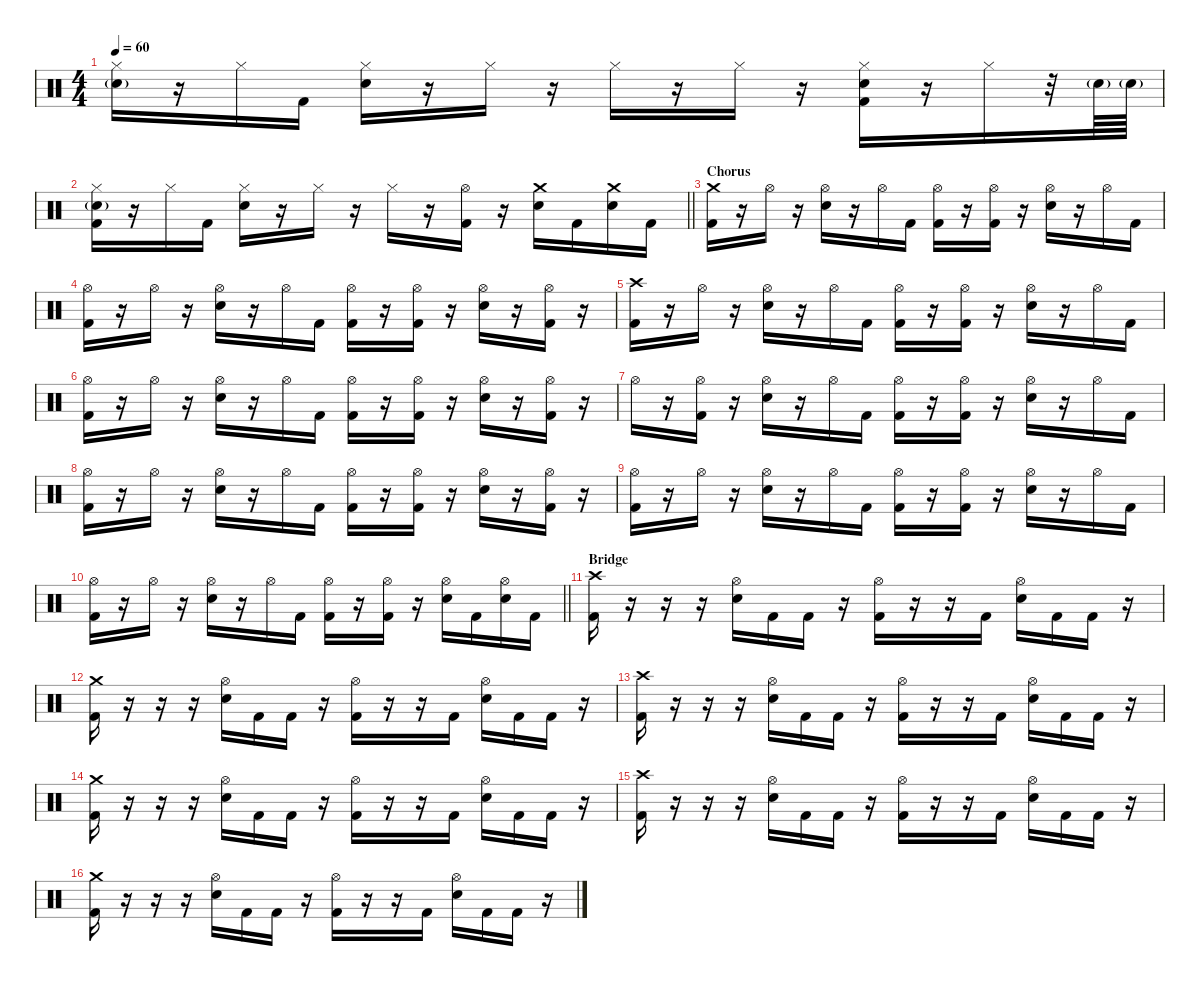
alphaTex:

\defaultSystemsLayout 4
\hideDynamics
\bracketExtendMode nobrackets
\singleTrackTrackNamePolicy hidden
\multiTrackTrackNamePolicy hidden
\firstSystemTrackNameMode fullname
\firstSystemTrackNameOrientation horizontal
\otherSystemsTrackNameOrientation horizontal
\track ("Gene Hoglan" "drm.") {instrument percussion}
\staff {score}
\articulation defaults
\ts (4 4)
\tempo 60
\clef neutral
\ks c
("Hi-Hat (closed)" "Snare (hit) 2"{g}).16{dy f beam Down} r.16{beam Down} "Hi-Hat (closed)".16{beam Down} "Kick (hit) 2".16{beam Down} ("Hi-Hat (closed)" "Snare (hit) 2").16{beam Down} r.16{beam Down} "Hi-Hat (closed)".16{beam Down} r.16{beam Down} "Hi-Hat (closed)".16{beam Down} r.16{beam Down} "Hi-Hat (closed)".16{beam Down} r.16{beam Down} ("Hi-Hat (closed)" "Snare (hit) 2" "Kick (hit) 2").16{beam Down} r.16{beam Down} "Hi-Hat (closed)".16{beam Down} r.32{beam Down} "Snare (hit) 2"{g}.64{beam Down} "Snare (hit) 2"{g}.64{beam Down} |
\barLineRight lightlight
("Hi-Hat (closed)" "Snare (hit) 2"{g} "Kick (hit) 2").16{beam Down} r.16{beam Down} "Hi-Hat (closed)".16{beam Down} "Kick (hit) 2".16{beam Down} ("Hi-Hat (closed)" "Snare (hit) 2").16{beam Down} r.16{beam Down} "Hi-Hat (closed)".16{beam Down} r.16{beam Down} "Hi-Hat (closed)".16{beam Down} r.16{beam Down} ("Hi-Hat (open)" "Kick (hit) 2").16{beam Down} r.16{beam Down} ("Crash medium (hit)" "Snare (hit) 2").16{beam Down} "Kick (hit) 2".16{beam Down} ("Crash medium (hit)" "Snare (hit) 2").16{beam Down} "Kick (hit) 2".16{beam Down} |
\section ("" "Chorus")
("Crash medium (hit)" "Kick (hit) 2").16{beam Down} r.16{beam Down} "Hi-Hat (open)".16{beam Down} r.16{beam Down} ("Hi-Hat (open)" "Snare (hit) 2").16{beam Down} r.16{beam Down} "Hi-Hat (open)".16{beam Down} "Kick (hit) 2".16{beam Down} ("Hi-Hat (open)" "Kick (hit) 2").16{beam Down} r.16{beam Down} ("Hi-Hat (open)" "Kick (hit) 2").16{beam Down} r.16{beam Down} ("Hi-Hat (open)" "Snare (hit) 2").16{beam Down} r.16{beam Down} "Hi-Hat (open)".16{beam Down} "Kick (hit) 2".16{beam Down} |
("Hi-Hat (open)" "Kick (hit) 2").16{beam Down} r.16{beam Down} "Hi-Hat (open)".16{beam Down} r.16{beam Down} ("Hi-Hat (open)" "Snare (hit) 2").16{beam Down} r.16{beam Down} "Hi-Hat (open)".16{beam Down} "Kick (hit) 2".16{beam Down} ("Hi-Hat (open)" "Kick (hit) 2").16{beam Down} r.16{beam Down} ("Hi-Hat (open)" "Kick (hit) 2").16{beam Down} r.16{beam Down} ("Hi-Hat (open)" "Snare (hit) 2").16{beam Down} r.16{beam Down} ("Hi-Hat (open)" "Kick (hit) 2").16{beam Down} r.16{beam Down} |
("Crash high (hit)" "Kick (hit) 2").16{beam Down} r.16{beam Down} "Hi-Hat (open)".16{beam Down} r.16{beam Down} ("Hi-Hat (open)" "Snare (hit) 2").16{beam Down} r.16{beam Down} "Hi-Hat (open)".16{beam Down} "Kick (hit) 2".16{beam Down} ("Hi-Hat (open)" "Kick (hit) 2").16{beam Down} r.16{beam Down} ("Hi-Hat (open)" "Kick (hit) 2").16{beam Down} r.16{beam Down} ("Hi-Hat (open)" "Snare (hit) 2").16{beam Down} r.16{beam Down} "Hi-Hat (open)".16{beam Down} "Kick (hit) 2".16{beam Down} |
("Hi-Hat (open)" "Kick (hit) 2").16{beam Down} r.16{beam Down} "Hi-Hat (open)".16{beam Down} r.16{beam Down} ("Hi-Hat (open)" "Snare (hit) 2").16{beam Down} r.16{beam Down} "Hi-Hat (open)".16{beam Down} "Kick (hit) 2".16{beam Down} ("Hi-Hat (open)" "Kick (hit) 2").16{beam Down} r.16{beam Down} ("Hi-Hat (open)" "Kick (hit) 2").16{beam Down} r.16{beam Down} ("Hi-Hat (open)" "Snare (hit) 2").16{beam Down} r.16{beam Down} ("Hi-Hat (open)" "Kick (hit) 2").16{beam Down} r.16{beam Down} |
"Hi-Hat (open)".16{beam Down} r.16{beam Down} ("Hi-Hat (open)" "Kick (hit) 2").16{beam Down} r.16{beam Down} ("Hi-Hat (open)" "Snare (hit) 2").16{beam Down} r.16{beam Down} "Hi-Hat (open)".16{beam Down} "Kick (hit) 2".16{beam Down} ("Hi-Hat (open)" "Kick (hit) 2").16{beam Down} r.16{beam Down} ("Hi-Hat (open)" "Kick (hit) 2").16{beam Down} r.16{beam Down} ("Hi-Hat (open)" "Snare (hit) 2").16{beam Down} r.16{beam Down} "Hi-Hat (open)".16{beam Down} "Kick (hit) 2".16{beam Down} |
("Hi-Hat (open)" "Kick (hit) 2").16{beam Down} r.16{beam Down} "Hi-Hat (open)".16{beam Down} r.16{beam Down} ("Hi-Hat (open)" "Snare (hit) 2").16{beam Down} r.16{beam Down} "Hi-Hat (open)".16{beam Down} "Kick (hit) 2".16{beam Down} ("Hi-Hat (open)" "Kick (hit) 2").16{beam Down} r.16{beam Down} ("Hi-Hat (open)" "Kick (hit) 2").16{beam Down} r.16{beam Down} ("Hi-Hat (open)" "Snare (hit) 2").16{beam Down} r.16{beam Down} ("Hi-Hat (open)" "Kick (hit) 2").16{beam Down} r.16{beam Down} |
("Hi-Hat (open)" "Kick (hit) 2").16{beam Down} r.16{beam Down} "Hi-Hat (open)".16{beam Down} r.16{beam Down} ("Hi-Hat (open)" "Snare (hit) 2").16{beam Down} r.16{beam Down} "Hi-Hat (open)".16{beam Down} "Kick (hit) 2".16{beam Down} ("Hi-Hat (open)" "Kick (hit) 2").16{beam Down} r.16{beam Down} ("Hi-Hat (open)" "Kick (hit) 2").16{beam Down} r.16{beam Down} ("Hi-Hat (open)" "Snare (hit) 2").16{beam Down} r.16{beam Down} "Hi-Hat (open)".16{beam Down} "Kick (hit) 2".16{beam Down} |
\barLineRight lightlight
("Hi-Hat (open)" "Kick (hit) 2").16{beam Down} r.16{beam Down} "Hi-Hat (open)".16{beam Down} r.16{beam Down} ("Hi-Hat (open)" "Snare (hit) 2").16{beam Down} r.16{beam Down} "Hi-Hat (open)".16{beam Down} "Kick (hit) 2".16{beam Down} ("Hi-Hat (open)" "Kick (hit) 2").16{beam Down} r.16{beam Down} ("Hi-Hat (open)" "Kick (hit) 2").16{beam Down} r.16{beam Down} ("Hi-Hat (open)" "Snare (hit) 2").16{beam Down} "Kick (hit) 2".16{beam Down} ("Hi-Hat (open)" "Snare (hit) 2").16{beam Down} "Kick (hit) 2".16{beam Down} |
\section ("" "Bridge")
("Crash high (hit)" "Kick (hit) 2").16{beam Down} r.16{beam Down} r.16{beam Down} r.16{beam Down} ("Hi-Hat (open)" "Snare (hit) 2").16{beam Down} "Kick (hit) 2".16{beam Down} "Kick (hit) 2".16{beam Down} r.16{beam Down} ("Hi-Hat (open)" "Kick (hit) 2").16{beam Down} r.16{beam Down} r.16{beam Down} "Kick (hit) 2".16{beam Down} ("Hi-Hat (open)" "Snare (hit) 2").16{beam Down} "Kick (hit) 2".16{beam Down} "Kick (hit) 2".16{beam Down} r.16{beam Down} |
("Crash medium (hit)" "Kick (hit) 2").16{beam Down} r.16{beam Down} r.16{beam Down} r.16{beam Down} ("Hi-Hat (open)" "Snare (hit) 2").16{beam Down} "Kick (hit) 2".16{beam Down} "Kick (hit) 2".16{beam Down} r.16{beam Down} ("Hi-Hat (open)" "Kick (hit) 2").16{beam Down} r.16{beam Down} r.16{beam Down} "Kick (hit) 2".16{beam Down} ("Hi-Hat (open)" "Snare (hit) 2").16{beam Down} "Kick (hit) 2".16{beam Down} "Kick (hit) 2".16{beam Down} r.16{beam Down} |
("Crash high (hit)" "Kick (hit) 2").16{beam Down} r.16{beam Down} r.16{beam Down} r.16{beam Down} ("Hi-Hat (open)" "Snare (hit) 2").16{beam Down} "Kick (hit) 2".16{beam Down} "Kick (hit) 2".16{beam Down} r.16{beam Down} ("Hi-Hat (open)" "Kick (hit) 2").16{beam Down} r.16{beam Down} r.16{beam Down} "Kick (hit) 2".16{beam Down} ("Hi-Hat (open)" "Snare (hit) 2").16{beam Down} "Kick (hit) 2".16{beam Down} "Kick (hit) 2".16{beam Down} r.16{beam Down} |
("Crash medium (hit)" "Kick (hit) 2").16{beam Down} r.16{beam Down} r.16{beam Down} r.16{beam Down} ("Hi-Hat (open)" "Snare (hit) 2").16{beam Down} "Kick (hit) 2".16{beam Down} "Kick (hit) 2".16{beam Down} r.16{beam Down} ("Hi-Hat (open)" "Kick (hit) 2").16{beam Down} r.16{beam Down} r.16{beam Down} "Kick (hit) 2".16{beam Down} ("Hi-Hat (open)" "Snare (hit) 2").16{beam Down} "Kick (hit) 2".16{beam Down} "Kick (hit) 2".16{beam Down} r.16{beam Down} |
("Crash high (hit)" "Kick (hit) 2").16{beam Down} r.16{beam Down} r.16{beam Down} r.16{beam Down} ("Hi-Hat (open)" "Snare (hit) 2").16{beam Down} "Kick (hit) 2".16{beam Down} "Kick (hit) 2".16{beam Down} r.16{beam Down} ("Hi-Hat (open)" "Kick (hit) 2").16{beam Down} r.16{beam Down} r.16{beam Down} "Kick (hit) 2".16{beam Down} ("Hi-Hat (open)" "Snare (hit) 2").16{beam Down} "Kick (hit) 2".16{beam Down} "Kick (hit) 2".16{beam Down} r.16{beam Down} |
("Crash medium (hit)" "Kick (hit) 2").16{beam Down} r.16{beam Down} r.16{beam Down} r.16{beam Down} ("Hi-Hat (open)" "Snare (hit) 2").16{beam Down} "Kick (hit) 2".16{beam Down} "Kick (hit) 2".16{beam Down} r.16{beam Down} ("Hi-Hat (open)" "Kick (hit) 2").16{beam Down} r.16{beam Down} r.16{beam Down} "Kick (hit) 2".16{beam Down} ("Hi-Hat (open)" "Snare (hit) 2").16{beam Down} "Kick (hit) 2".16{beam Down} "Kick (hit) 2".16{beam Down} r.16{beam Down}
